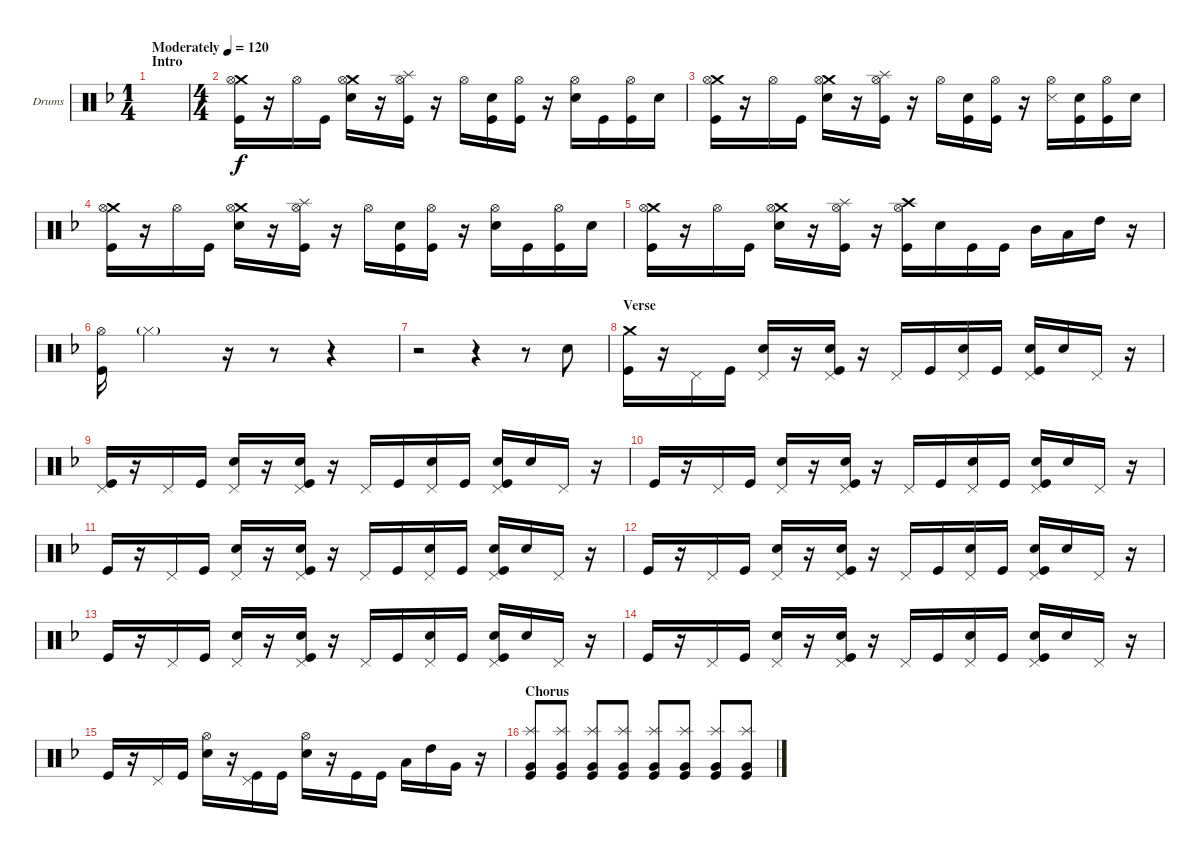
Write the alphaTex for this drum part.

\defaultSystemsLayout 4
\bracketExtendMode groupsimilarinstruments
\firstSystemTrackNameOrientation horizontal
\otherSystemsTrackNameOrientation horizontal
\track ("Drumkit" "Drums") {instrument percussion}
\staff {score}
\articulation defaults
\ts (1 4)
\section ("" "Intro")
\tempo (120 "Moderately")
\clef neutral
\scale
0.400709
\ks f
|
\ts (4 4)
\scale
0.400709 ("Crash medium (hit)" "Hi-Hat (open)" "Kick (hit)").16 r.16 "Hi-Hat (open)".16 "Kick (hit)".16 ("Crash medium (hit)" "Hi-Hat (open)" "Snare (hit) 2").16 r.16 ("Splash (hit)" "Hi-Hat (open)" "Kick (hit)").16 r.16 "Hi-Hat (open)".16 ("Snare (hit) 2" "Kick (hit)").16 ("Kick (hit)" "Hi-Hat (open)").16 r.16 ("Hi-Hat (open)" "Snare (hit) 2").16 "Kick (hit)".16 ("Kick (hit)" "Hi-Hat (open)").16 "Snare (hit) 2".16 |
\scale
0.198582 ("Crash medium (hit)" "Hi-Hat (open)" "Kick (hit)").16 r.16 "Hi-Hat (open)".16 "Kick (hit)".16 ("Crash medium (hit)" "Hi-Hat (open)" "Snare (hit) 2").16 r.16 ("Splash (hit)" "Hi-Hat (open)" "Kick (hit)").16 r.16 "Hi-Hat (open)".16 ("Snare (hit) 2" "Kick (hit)").16 ("Kick (hit)" "Hi-Hat (open)").16 r.16 ("Hi-Hat (open)" "Snare (side stick) 3").16 ("Kick (hit)" "Snare (hit) 2").16 ("Kick (hit)" "Hi-Hat (open)").16 "Snare (hit) 2".16 |
\scale
0.333333 ("Crash medium (hit)" "Hi-Hat (open)" "Kick (hit)").16 r.16 "Hi-Hat (open)".16 "Kick (hit)".16 ("Crash medium (hit)" "Hi-Hat (open)" "Snare (hit) 2").16 r.16 ("Splash (hit)" "Hi-Hat (open)" "Kick (hit)").16 r.16 "Hi-Hat (open)".16 ("Snare (hit) 2" "Kick (hit)").16 ("Kick (hit)" "Hi-Hat (open)").16 r.16 ("Hi-Hat (open)" "Snare (hit) 2").16 "Kick (hit)".16 ("Kick (hit)" "Hi-Hat (open)").16 "Snare (hit) 2".16 |
\scale
0.333333 ("Crash medium (hit)" "Hi-Hat (open)" "Kick (hit)").16 r.16 "Hi-Hat (open)".16 "Kick (hit)".16 ("Crash medium (hit)" "Hi-Hat (open)" "Snare (hit) 2").16 r.16 ("Splash (hit)" "Hi-Hat (open)" "Kick (hit)").16 r.16 ("Kick (hit)" "Hi-Hat (open)" "Crash high (hit)").16 "Snare (hit) 2".16 "Kick (hit)".16 "Kick (hit)".16 "Mid Tom (hit)".16 "Low Tom (hit)".16 "High Tom (hit)".16 r.16 |
\scale
0.333333 ("Kick (hit)" "Hi-Hat (open)").16 "Hi-Hat (closed)"{g}.2 r.16 r.8 r.4 |
\scale
0.333333 r.2 r.4 r.8 "Snare (hit) 2".8 |
\section ("" "Verse")
\scale
0.333333 ("Kick (hit)" "Crash medium (hit)").16 r.16 "Pedal Hi-Hat (hit)".16 "Kick (hit)".16 ("Snare (hit) 2" "Pedal Hi-Hat (hit)").16 r.16 ("Kick (hit)" "Snare (hit) 2" "Pedal Hi-Hat (hit)").16 r.16 "Pedal Hi-Hat (hit)".16 "Kick (hit)".16 ("Snare (hit) 2" "Pedal Hi-Hat (hit)").16 "Kick (hit)".16 ("Kick (hit)" "Snare (hit) 2" "Pedal Hi-Hat (hit)").16 "Snare (hit) 2".16 "Pedal Hi-Hat (hit)".16 r.16 |
\scale
0.333333 ("Pedal Hi-Hat (hit)" "Kick (hit)").16 r.16 "Pedal Hi-Hat (hit)".16 "Kick (hit)".16 ("Pedal Hi-Hat (hit)" "Snare (hit) 2").16 r.16 ("Kick (hit)" "Snare (hit) 2" "Pedal Hi-Hat (hit)").16 r.16 "Pedal Hi-Hat (hit)".16 "Kick (hit)".16 ("Pedal Hi-Hat (hit)" "Snare (hit) 2").16 "Kick (hit)".16 ("Kick (hit)" "Snare (hit) 2" "Pedal Hi-Hat (hit)").16 "Snare (hit) 2".16 "Pedal Hi-Hat (hit)".16 r.16 |
\scale
0.333333 "Kick (hit)".16 r.16 "Pedal Hi-Hat (hit)".16 "Kick (hit)".16 ("Pedal Hi-Hat (hit)" "Snare (hit) 2").16 r.16 ("Kick (hit)" "Snare (hit) 2" "Pedal Hi-Hat (hit)").16 r.16 "Pedal Hi-Hat (hit)".16 "Kick (hit)".16 ("Snare (hit) 2" "Pedal Hi-Hat (hit)").16 "Kick (hit)".16 ("Kick (hit)" "Snare (hit) 2" "Pedal Hi-Hat (hit)").16 "Snare (hit) 2".16 "Pedal Hi-Hat (hit)".16 r.16 |
\scale
0.333333 "Kick (hit)".16 r.16 "Pedal Hi-Hat (hit)".16 "Kick (hit)".16 ("Pedal Hi-Hat (hit)" "Snare (hit) 2").16 r.16 ("Kick (hit)" "Snare (hit) 2" "Pedal Hi-Hat (hit)").16 r.16 "Pedal Hi-Hat (hit)".16 "Kick (hit)".16 ("Snare (hit) 2" "Pedal Hi-Hat (hit)").16 "Kick (hit)".16 ("Kick (hit)" "Snare (hit) 2" "Pedal Hi-Hat (hit)").16 "Snare (hit) 2".16 "Pedal Hi-Hat (hit)".16 r.16 |
\scale
0.333333 "Kick (hit)".16 r.16 "Pedal Hi-Hat (hit)".16 "Kick (hit)".16 ("Pedal Hi-Hat (hit)" "Snare (hit) 2").16 r.16 ("Kick (hit)" "Snare (hit) 2" "Pedal Hi-Hat (hit)").16 r.16 "Pedal Hi-Hat (hit)".16 "Kick (hit)".16 ("Snare (hit) 2" "Pedal Hi-Hat (hit)").16 "Kick (hit)".16 ("Kick (hit)" "Snare (hit) 2" "Pedal Hi-Hat (hit)").16 "Snare (hit) 2".16 "Pedal Hi-Hat (hit)".16 r.16 |
\scale
0.333333 "Kick (hit)".16 r.16 "Pedal Hi-Hat (hit)".16 "Kick (hit)".16 ("Pedal Hi-Hat (hit)" "Snare (hit) 2").16 r.16 ("Kick (hit)" "Snare (hit) 2" "Pedal Hi-Hat (hit)").16 r.16 "Pedal Hi-Hat (hit)".16 "Kick (hit)".16 ("Snare (hit) 2" "Pedal Hi-Hat (hit)").16 "Kick (hit)".16 ("Kick (hit)" "Snare (hit) 2" "Pedal Hi-Hat (hit)").16 "Snare (hit) 2".16 "Pedal Hi-Hat (hit)".16 r.16 |
\scale
0.333333 "Kick (hit)".16 r.16 "Pedal Hi-Hat (hit)".16 "Kick (hit)".16 ("Pedal Hi-Hat (hit)" "Snare (hit) 2").16 r.16 ("Kick (hit)" "Snare (hit) 2" "Pedal Hi-Hat (hit)").16 r.16 "Pedal Hi-Hat (hit)".16 "Kick (hit)".16 ("Snare (hit) 2" "Pedal Hi-Hat (hit)").16 "Kick (hit)".16 ("Kick (hit)" "Snare (hit) 2" "Pedal Hi-Hat (hit)").16 "Snare (hit) 2".16 "Pedal Hi-Hat (hit)".16 r.16 |
\scale
0.333333 "Kick (hit)".16 r.16 "Pedal Hi-Hat (hit)".16 "Kick (hit)".16 ("Snare (hit) 2" "Hi-Hat (open)").16 r.16 ("Kick (hit)" "Pedal Hi-Hat (hit)").16 "Kick (hit)".16 ("Snare (hit) 2" "Hi-Hat (open)").16 r.16 "Kick (hit)".16 "Kick (hit)".16 "Low Tom (hit)".16 "High Tom (hit)".16 "Very Low Tom (hit)".16 r.16 |
\section ("" "Chorus")
\scale
0.333333 ("Splash (hit)" "Very Low Tom (hit)" "Kick (hit)").8 ("Splash (hit)" "Very Low Tom (hit)" "Kick (hit)").8 ("Splash (hit)" "Very Low Tom (hit)" "Kick (hit)").8 ("Splash (hit)" "Very Low Tom (hit)" "Kick (hit)").8 ("Splash (hit)" "Very Low Tom (hit)" "Kick (hit)").8 ("Splash (hit)" "Very Low Tom (hit)" "Kick (hit)").8 ("Splash (hit)" "Very Low Tom (hit)" "Kick (hit)").8 ("Splash (hit)" "Very Low Tom (hit)" "Kick (hit)").8
